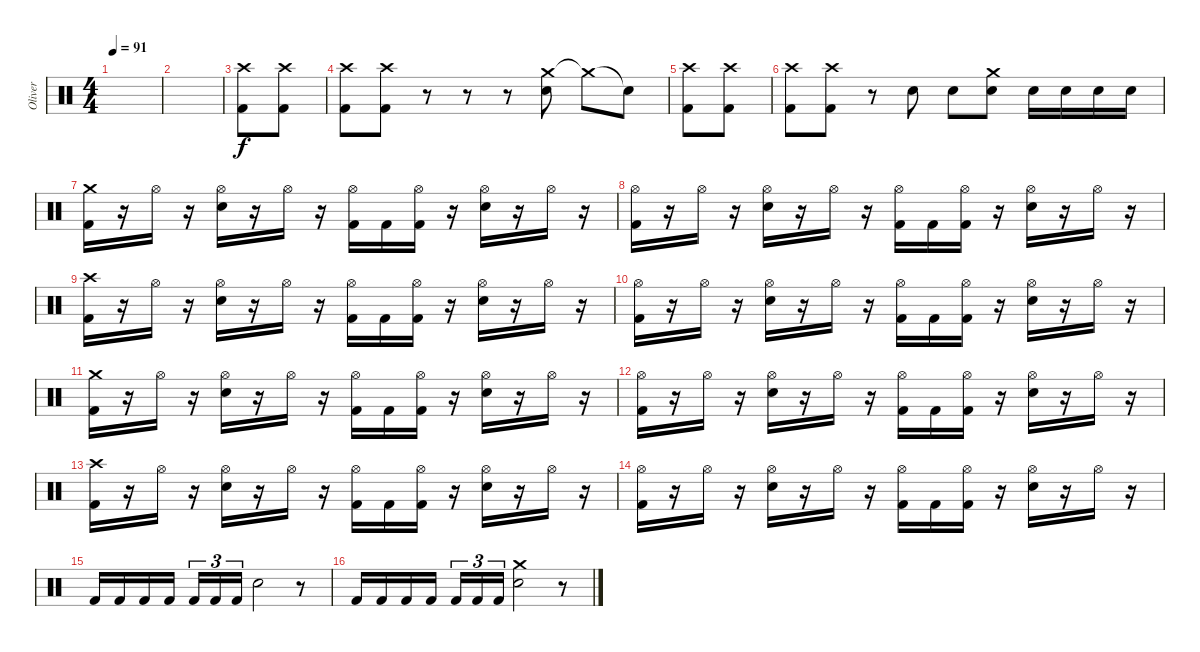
\track ("Oliver" "Oliver") {instrument percussion}
\staff {score}
\articulation defaults
\ts (4 4)
\tempo 91
\clef neutral
\ks c
|
|
("Crash high (hit)" "Kick (hit) 2").8 ("Crash high (hit)" "Kick (hit) 2").8 |
("Crash high (hit)" "Kick (hit) 2").8 ("Crash high (hit)" "Kick (hit) 2").8 r.8 r.8 r.8 ("Crash medium (hit)" "Snare (hit) 2").8 "Crash medium (hit)"{t}.8 "Snare (hit)"{t}.8 |
("Crash high (hit)" "Kick (hit) 2").8 ("Crash high (hit)" "Kick (hit) 2").8 |
("Crash high (hit)" "Kick (hit) 2").8 ("Crash high (hit)" "Kick (hit) 2").8 r.8 "Snare (hit) 2".8 "Snare (hit) 2".8 ("Crash medium (hit)" "Snare (hit) 2").8 "Snare (hit) 2".16 "Snare (hit) 2".16 "Snare (hit) 2".16 "Snare (hit) 2".16 |
("Crash medium (hit)" "Kick (hit) 2").16 r.16 "Hi-Hat (open)".16 r.16 ("Hi-Hat (open)" "Snare (hit) 2").16 r.16 "Hi-Hat (open)".16 r.16 ("Hi-Hat (open)" "Kick (hit) 2").16 "Kick (hit) 2".16 ("Hi-Hat (open)" "Kick (hit) 2").16 r.16 ("Hi-Hat (open)" "Snare (hit) 2").16 r.16 "Hi-Hat (open)".16 r.16 |
("Hi-Hat (open)" "Kick (hit) 2").16 r.16 "Hi-Hat (open)".16 r.16 ("Hi-Hat (open)" "Snare (hit) 2").16 r.16 "Hi-Hat (open)".16 r.16 ("Hi-Hat (open)" "Kick (hit) 2").16 "Kick (hit) 2".16 ("Hi-Hat (open)" "Kick (hit) 2").16 r.16 ("Hi-Hat (open)" "Snare (hit) 2").16 r.16 "Hi-Hat (open)".16 r.16 |
("Crash high (hit)" "Kick (hit) 2").16 r.16 "Hi-Hat (open)".16 r.16 ("Hi-Hat (open)" "Snare (hit) 2").16 r.16 "Hi-Hat (open)".16 r.16 ("Hi-Hat (open)" "Kick (hit) 2").16 "Kick (hit) 2".16 ("Hi-Hat (open)" "Kick (hit) 2").16 r.16 ("Hi-Hat (open)" "Snare (hit) 2").16 r.16 "Hi-Hat (open)".16 r.16 |
("Hi-Hat (open)" "Kick (hit) 2").16 r.16 "Hi-Hat (open)".16 r.16 ("Hi-Hat (open)" "Snare (hit) 2").16 r.16 "Hi-Hat (open)".16 r.16 ("Hi-Hat (open)" "Kick (hit) 2").16 "Kick (hit) 2".16 ("Hi-Hat (open)" "Kick (hit) 2").16 r.16 ("Hi-Hat (open)" "Snare (hit) 2").16 r.16 "Hi-Hat (open)".16 r.16 |
("Crash medium (hit)" "Kick (hit) 2").16 r.16 "Hi-Hat (open)".16 r.16 ("Hi-Hat (open)" "Snare (hit) 2").16 r.16 "Hi-Hat (open)".16 r.16 ("Hi-Hat (open)" "Kick (hit) 2").16 "Kick (hit) 2".16 ("Hi-Hat (open)" "Kick (hit) 2").16 r.16 ("Hi-Hat (open)" "Snare (hit) 2").16 r.16 "Hi-Hat (open)".16 r.16 |
("Hi-Hat (open)" "Kick (hit) 2").16 r.16 "Hi-Hat (open)".16 r.16 ("Hi-Hat (open)" "Snare (hit) 2").16 r.16 "Hi-Hat (open)".16 r.16 ("Hi-Hat (open)" "Kick (hit) 2").16 "Kick (hit) 2".16 ("Hi-Hat (open)" "Kick (hit) 2").16 r.16 ("Hi-Hat (open)" "Snare (hit) 2").16 r.16 "Hi-Hat (open)".16 r.16 |
("Crash high (hit)" "Kick (hit) 2").16 r.16 "Hi-Hat (open)".16 r.16 ("Hi-Hat (open)" "Snare (hit) 2").16 r.16 "Hi-Hat (open)".16 r.16 ("Hi-Hat (open)" "Kick (hit) 2").16 "Kick (hit) 2".16 ("Hi-Hat (open)" "Kick (hit) 2").16 r.16 ("Hi-Hat (open)" "Snare (hit) 2").16 r.16 "Hi-Hat (open)".16 r.16 |
("Hi-Hat (open)" "Kick (hit) 2").16 r.16 "Hi-Hat (open)".16 r.16 ("Hi-Hat (open)" "Snare (hit) 2").16 r.16 "Hi-Hat (open)".16 r.16 ("Hi-Hat (open)" "Kick (hit) 2").16 "Kick (hit) 2".16 ("Hi-Hat (open)" "Kick (hit) 2").16 r.16 ("Hi-Hat (open)" "Snare (hit) 2").16 r.16 "Hi-Hat (open)".16 r.16 |
"Kick (hit) 2".16 "Kick (hit) 2".16 "Kick (hit) 2".16 "Kick (hit) 2".16 "Kick (hit) 2".16{tu (3 2)} "Kick (hit) 2".16{tu (3 2)} "Kick (hit) 2".16{tu (3 2)} "Snare (hit) 2".2 r.8 |
"Kick (hit) 2".16 "Kick (hit) 2".16 "Kick (hit) 2".16 "Kick (hit) 2".16 "Kick (hit) 2".16{tu (3 2)} "Kick (hit) 2".16{tu (3 2)} "Kick (hit) 2".16{tu (3 2)} ("Snare (hit) 2" "Crash medium (hit)").2 r.8
